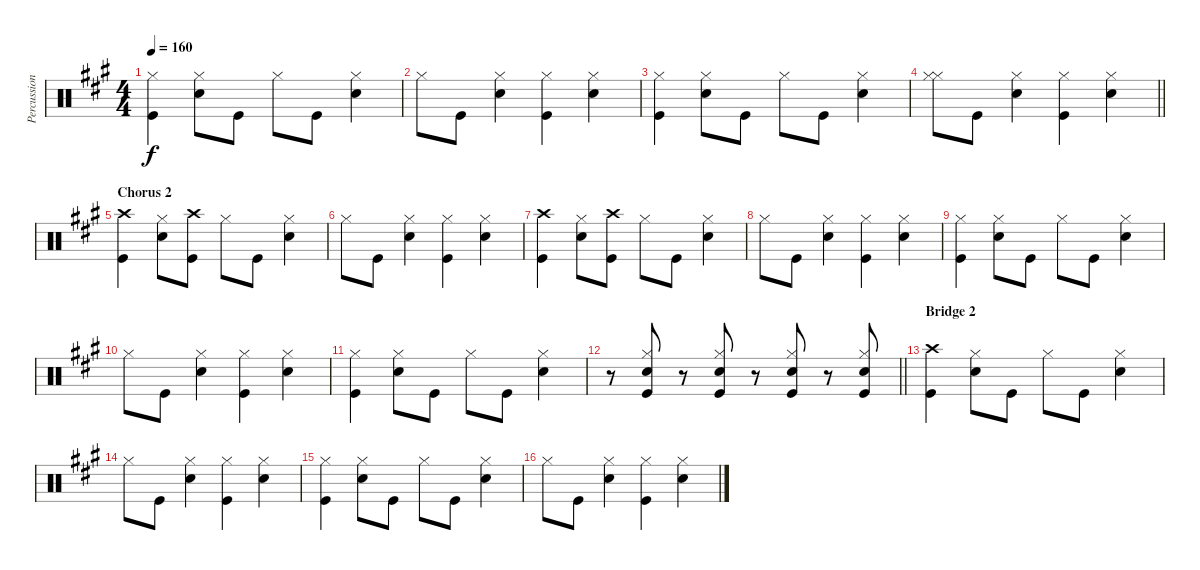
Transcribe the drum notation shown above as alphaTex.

\track ("Percussion" "Percussion") {instrument percussion}
\staff {score}
\articulation defaults
\ts (4 4)
\tempo 160
\clef neutral
\ks a
("Kick (hit)" "Hi-Hat (closed)").4{dy f} ("Snare (hit) 2" "Hi-Hat (closed)").8 "Kick (hit)".8 "Hi-Hat (closed)".8 "Kick (hit)".8 ("Snare (hit) 2" "Hi-Hat (closed)").4 |
"Hi-Hat (closed)".8 "Kick (hit)".8 ("Snare (hit) 2" "Hi-Hat (closed)").4 ("Kick (hit)" "Hi-Hat (closed)").4 ("Snare (hit) 2" "Hi-Hat (closed)").4 |
("Kick (hit)" "Hi-Hat (closed)").4 ("Snare (hit) 2" "Hi-Hat (closed)").8 "Kick (hit)".8 "Hi-Hat (closed)".8 "Kick (hit)".8 ("Snare (hit) 2" "Hi-Hat (closed)").4 |
\barLineRight lightlight
("Hi-Hat (closed)" "Hi-Hat (closed)").8 "Kick (hit)".8 ("Snare (hit) 2" "Hi-Hat (closed)").4 ("Kick (hit)" "Hi-Hat (closed)").4 ("Snare (hit) 2" "Hi-Hat (closed)").4 |
\section ("" "Chorus 2")
("Kick (hit)" "Crash high (hit)").4 ("Snare (hit) 2" "Hi-Hat (closed)").8 ("Kick (hit)" "Crash high (hit)").8 "Hi-Hat (closed)".8 "Kick (hit)".8 ("Snare (hit) 2" "Hi-Hat (closed)").4 |
"Hi-Hat (closed)".8 "Kick (hit)".8 ("Snare (hit) 2" "Hi-Hat (closed)").4 ("Kick (hit)" "Hi-Hat (closed)").4 ("Snare (hit) 2" "Hi-Hat (closed)").4 |
("Crash high (hit)" "Kick (hit)").4 ("Snare (hit) 2" "Hi-Hat (closed)").8 ("Kick (hit)" "Crash high (hit)").8 "Hi-Hat (closed)".8 "Kick (hit)".8 ("Snare (hit) 2" "Hi-Hat (closed)").4 |
"Hi-Hat (closed)".8 "Kick (hit)".8 ("Snare (hit) 2" "Hi-Hat (closed)").4 ("Kick (hit)" "Hi-Hat (closed)").4 ("Snare (hit) 2" "Hi-Hat (closed)").4 |
("Kick (hit)" "Hi-Hat (closed)").4 ("Snare (hit) 2" "Hi-Hat (closed)").8 "Kick (hit)".8 "Hi-Hat (closed)".8 "Kick (hit)".8 ("Snare (hit) 2" "Hi-Hat (closed)").4 |
"Hi-Hat (closed)".8 "Kick (hit)".8 ("Snare (hit) 2" "Hi-Hat (closed)").4 ("Kick (hit)" "Hi-Hat (closed)").4 ("Snare (hit) 2" "Hi-Hat (closed)").4 |
("Kick (hit)" "Hi-Hat (closed)").4 ("Snare (hit) 2" "Hi-Hat (closed)").8 "Kick (hit)".8 "Hi-Hat (closed)".8 "Kick (hit)".8 ("Snare (hit) 2" "Hi-Hat (closed)").4 |
\barLineRight lightlight
r.8 ("Kick (hit)" "Snare (hit) 2" "Hi-Hat (closed)").8 r.8 ("Kick (hit)" "Snare (hit) 2" "Hi-Hat (closed)").8 r.8 ("Hi-Hat (closed)" "Kick (hit)" "Snare (hit) 2").8 r.8 ("Hi-Hat (closed)" "Kick (hit)" "Snare (hit) 2").8 |
\section ("" "Bridge 2")
("Kick (hit)" "Crash high (hit)").4 ("Snare (hit) 2" "Hi-Hat (closed)").8 "Kick (hit)".8 "Hi-Hat (closed)".8 "Kick (hit)".8 ("Snare (hit) 2" "Hi-Hat (closed)").4 |
"Hi-Hat (closed)".8 "Kick (hit)".8 ("Snare (hit) 2" "Hi-Hat (closed)").4 ("Kick (hit)" "Hi-Hat (closed)").4 ("Snare (hit) 2" "Hi-Hat (closed)").4 |
("Kick (hit)" "Hi-Hat (closed)").4 ("Snare (hit) 2" "Hi-Hat (closed)").8 "Kick (hit)".8 "Hi-Hat (closed)".8 "Kick (hit)".8 ("Snare (hit) 2" "Hi-Hat (closed)").4 |
"Hi-Hat (closed)".8 "Kick (hit)".8 ("Snare (hit) 2" "Hi-Hat (closed)").4 ("Kick (hit)" "Hi-Hat (closed)").4 ("Snare (hit) 2" "Hi-Hat (closed)").4
